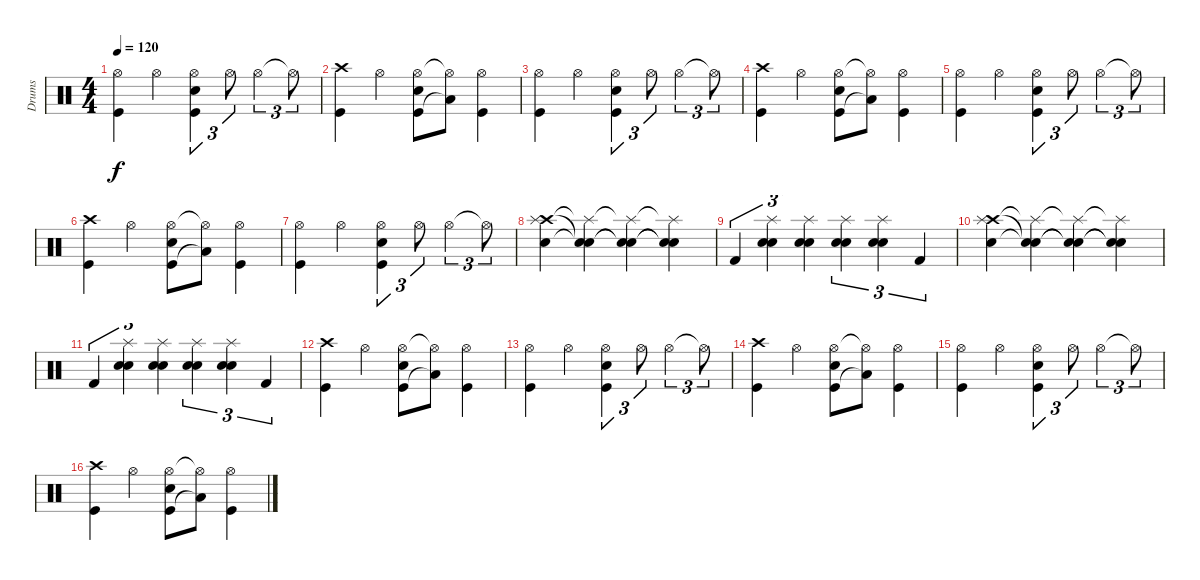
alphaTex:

\track ("Drums" "Drums") {instrument percussion}
\staff {score}
\articulation defaults
\ts (4 4)
\tempo 120
\clef neutral
\ks c
("Hi-Hat (open)" "Kick (hit)").4{dy f} "Hi-Hat (open)".4 ("Hi-Hat (open)" "Kick (hit)" "Electric Snare (hit)").4{tu (3 2)} "Hi-Hat (open)".8{tu (3 2)} "Hi-Hat (open)".4{tu (3 2)} "Hi-Hat (open)"{t}.8{tu (3 2)} |
("Crash high (hit)" "Kick (hit)").4 "Hi-Hat (open)".4 ("Hi-Hat (open)" "Kick (hit)" "Electric Snare (hit)").8 ("Hi-Hat (open)"{t} "Low Tom (hit)"{t}).8 ("Hi-Hat (open)" "Kick (hit)").4 |
("Hi-Hat (open)" "Kick (hit)").4 "Hi-Hat (open)".4 ("Hi-Hat (open)" "Kick (hit)" "Electric Snare (hit)").4{tu (3 2)} "Hi-Hat (open)".8{tu (3 2)} "Hi-Hat (open)".4{tu (3 2)} "Hi-Hat (open)"{t}.8{tu (3 2)} |
("Crash high (hit)" "Kick (hit)").4 "Hi-Hat (open)".4 ("Hi-Hat (open)" "Kick (hit)" "Electric Snare (hit)").8 ("Hi-Hat (open)"{t} "Low Tom (hit)"{t}).8 ("Hi-Hat (open)" "Kick (hit)").4 |
("Hi-Hat (open)" "Kick (hit)").4 "Hi-Hat (open)".4 ("Hi-Hat (open)" "Kick (hit)" "Electric Snare (hit)").4{tu (3 2)} "Hi-Hat (open)".8{tu (3 2)} "Hi-Hat (open)".4{tu (3 2)} "Hi-Hat (open)"{t}.8{tu (3 2)} |
("Crash high (hit)" "Kick (hit)").4 "Hi-Hat (open)".4 ("Hi-Hat (open)" "Kick (hit)" "Electric Snare (hit)").8 ("Hi-Hat (open)"{t} "Low Tom (hit)"{t}).8 ("Hi-Hat (open)" "Kick (hit)").4 |
("Hi-Hat (open)" "Kick (hit)").4 "Hi-Hat (open)".4 ("Hi-Hat (open)" "Kick (hit)" "Electric Snare (hit)").4{tu (3 2)} "Hi-Hat (open)".8{tu (3 2)} "Hi-Hat (open)".4{tu (3 2)} "Hi-Hat (open)"{t}.8{tu (3 2)} |
("Crash high (hit)" "Snare (hit) 2" "Splash (hit)").4 ("Snare (hit)"{t} "Snare (hit)"{t} "Splash (hit)"{t}).4 ("Snare (hit)"{t} "Snare (hit)"{t} "Splash (hit)"{t}).4 ("Snare (hit)"{t} "Snare (hit)"{t} "Splash (hit)"{t}).4 |
"Kick (hit) 2".4{tu (3 2)} ("Electric Snare (hit)" "Snare (hit) 2" "Splash (hit)").4{tu (3 2)} ("Electric Snare (hit)" "Snare (hit) 2" "Splash (hit)").4{tu (3 2)} ("Electric Snare (hit)" "Snare (hit) 2" "Splash (hit)").4{tu (3 2)} ("Electric Snare (hit)" "Snare (hit) 2" "Splash (hit)").4{tu (3 2)} "Kick (hit) 2".4{tu (3 2)} |
("Crash high (hit)" "Snare (hit) 2" "Splash (hit)").4 ("Snare (hit)"{t} "Snare (hit)"{t} "Splash (hit)"{t}).4 ("Snare (hit)"{t} "Snare (hit)"{t} "Splash (hit)"{t}).4 ("Snare (hit)"{t} "Snare (hit)"{t} "Splash (hit)"{t}).4 |
"Kick (hit) 2".4{tu (3 2)} ("Electric Snare (hit)" "Snare (hit) 2" "Splash (hit)").4{tu (3 2)} ("Electric Snare (hit)" "Snare (hit) 2" "Splash (hit)").4{tu (3 2)} ("Electric Snare (hit)" "Snare (hit) 2" "Splash (hit)").4{tu (3 2)} ("Electric Snare (hit)" "Snare (hit) 2" "Splash (hit)").4{tu (3 2)} "Kick (hit) 2".4{tu (3 2)} |
("Crash high (hit)" "Kick (hit)").4 "Hi-Hat (open)".4 ("Hi-Hat (open)" "Kick (hit)" "Electric Snare (hit)").8 ("Hi-Hat (open)"{t} "Low Tom (hit)"{t}).8 ("Hi-Hat (open)" "Kick (hit)").4 |
("Hi-Hat (open)" "Kick (hit)").4 "Hi-Hat (open)".4 ("Hi-Hat (open)" "Kick (hit)" "Electric Snare (hit)").4{tu (3 2)} "Hi-Hat (open)".8{tu (3 2)} "Hi-Hat (open)".4{tu (3 2)} "Hi-Hat (open)"{t}.8{tu (3 2)} |
("Crash high (hit)" "Kick (hit)").4 "Hi-Hat (open)".4 ("Hi-Hat (open)" "Kick (hit)" "Electric Snare (hit)").8 ("Hi-Hat (open)"{t} "Low Tom (hit)"{t}).8 ("Hi-Hat (open)" "Kick (hit)").4 |
("Hi-Hat (open)" "Kick (hit)").4 "Hi-Hat (open)".4 ("Hi-Hat (open)" "Kick (hit)" "Electric Snare (hit)").4{tu (3 2)} "Hi-Hat (open)".8{tu (3 2)} "Hi-Hat (open)".4{tu (3 2)} "Hi-Hat (open)"{t}.8{tu (3 2)} |
("Crash high (hit)" "Kick (hit)").4 "Hi-Hat (open)".4 ("Hi-Hat (open)" "Kick (hit)" "Electric Snare (hit)").8 ("Hi-Hat (open)"{t} "Low Tom (hit)"{t}).8 ("Hi-Hat (open)" "Kick (hit)").4
